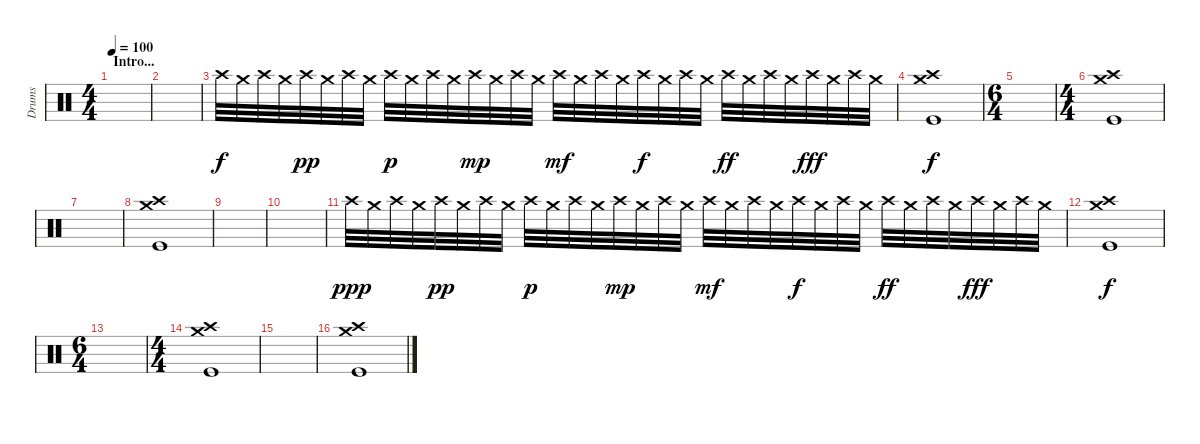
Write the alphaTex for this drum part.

\track ("Drums" "Drums") {instrument percussion}
\staff {score}
\articulation defaults
\ts (4 4)
\section ("" "Intro...")
\tempo 100
\clef neutral
\ks c
|
|
"Crash high (hit)".32 "Crash medium (hit)".32 "Crash high (hit)".32 "Crash medium (hit)".32 "Crash high (hit)".32{dy pp} "Crash medium (hit)".32 "Crash high (hit)".32 "Crash medium (hit)".32 "Crash high (hit)".32{dy p} "Crash medium (hit)".32 "Crash high (hit)".32 "Crash medium (hit)".32 "Crash high (hit)".32{dy mp} "Crash medium (hit)".32 "Crash high (hit)".32 "Crash medium (hit)".32 "Crash high (hit)".32{dy mf} "Crash medium (hit)".32 "Crash high (hit)".32 "Crash medium (hit)".32 "Crash high (hit)".32{dy f} "Crash medium (hit)".32 "Crash high (hit)".32 "Crash medium (hit)".32 "Crash high (hit)".32{dy ff} "Crash medium (hit)".32 "Crash high (hit)".32 "Crash medium (hit)".32 "Crash high (hit)".32{dy fff} "Crash medium (hit)".32 "Crash high (hit)".32 "Crash medium (hit)".32 |
("Crash high (hit)" "Crash medium (hit)" "Kick (hit)").1{dy f} |
\ts (6 4)
|
\ts (4 4)
("Crash high (hit)" "Crash medium (hit)" "Kick (hit)").1 |
|
("Crash high (hit)" "Crash medium (hit)" "Kick (hit)").1 |
|
|
"Crash high (hit)".32{dy ppp} "Crash medium (hit)".32 "Crash high (hit)".32 "Crash medium (hit)".32 "Crash high (hit)".32{dy pp} "Crash medium (hit)".32 "Crash high (hit)".32 "Crash medium (hit)".32 "Crash high (hit)".32{dy p} "Crash medium (hit)".32 "Crash high (hit)".32 "Crash medium (hit)".32 "Crash high (hit)".32{dy mp} "Crash medium (hit)".32 "Crash high (hit)".32 "Crash medium (hit)".32 "Crash high (hit)".32{dy mf} "Crash medium (hit)".32 "Crash high (hit)".32 "Crash medium (hit)".32 "Crash high (hit)".32{dy f} "Crash medium (hit)".32 "Crash high (hit)".32 "Crash medium (hit)".32 "Crash high (hit)".32{dy ff} "Crash medium (hit)".32 "Crash high (hit)".32 "Crash medium (hit)".32 "Crash high (hit)".32{dy fff} "Crash medium (hit)".32 "Crash high (hit)".32 "Crash medium (hit)".32 |
("Crash high (hit)" "Crash medium (hit)" "Kick (hit)").1{dy f} |
\ts (6 4)
|
\ts (4 4)
("Crash high (hit)" "Crash medium (hit)" "Kick (hit)").1 |
|
("Crash high (hit)" "Crash medium (hit)" "Kick (hit)").1
